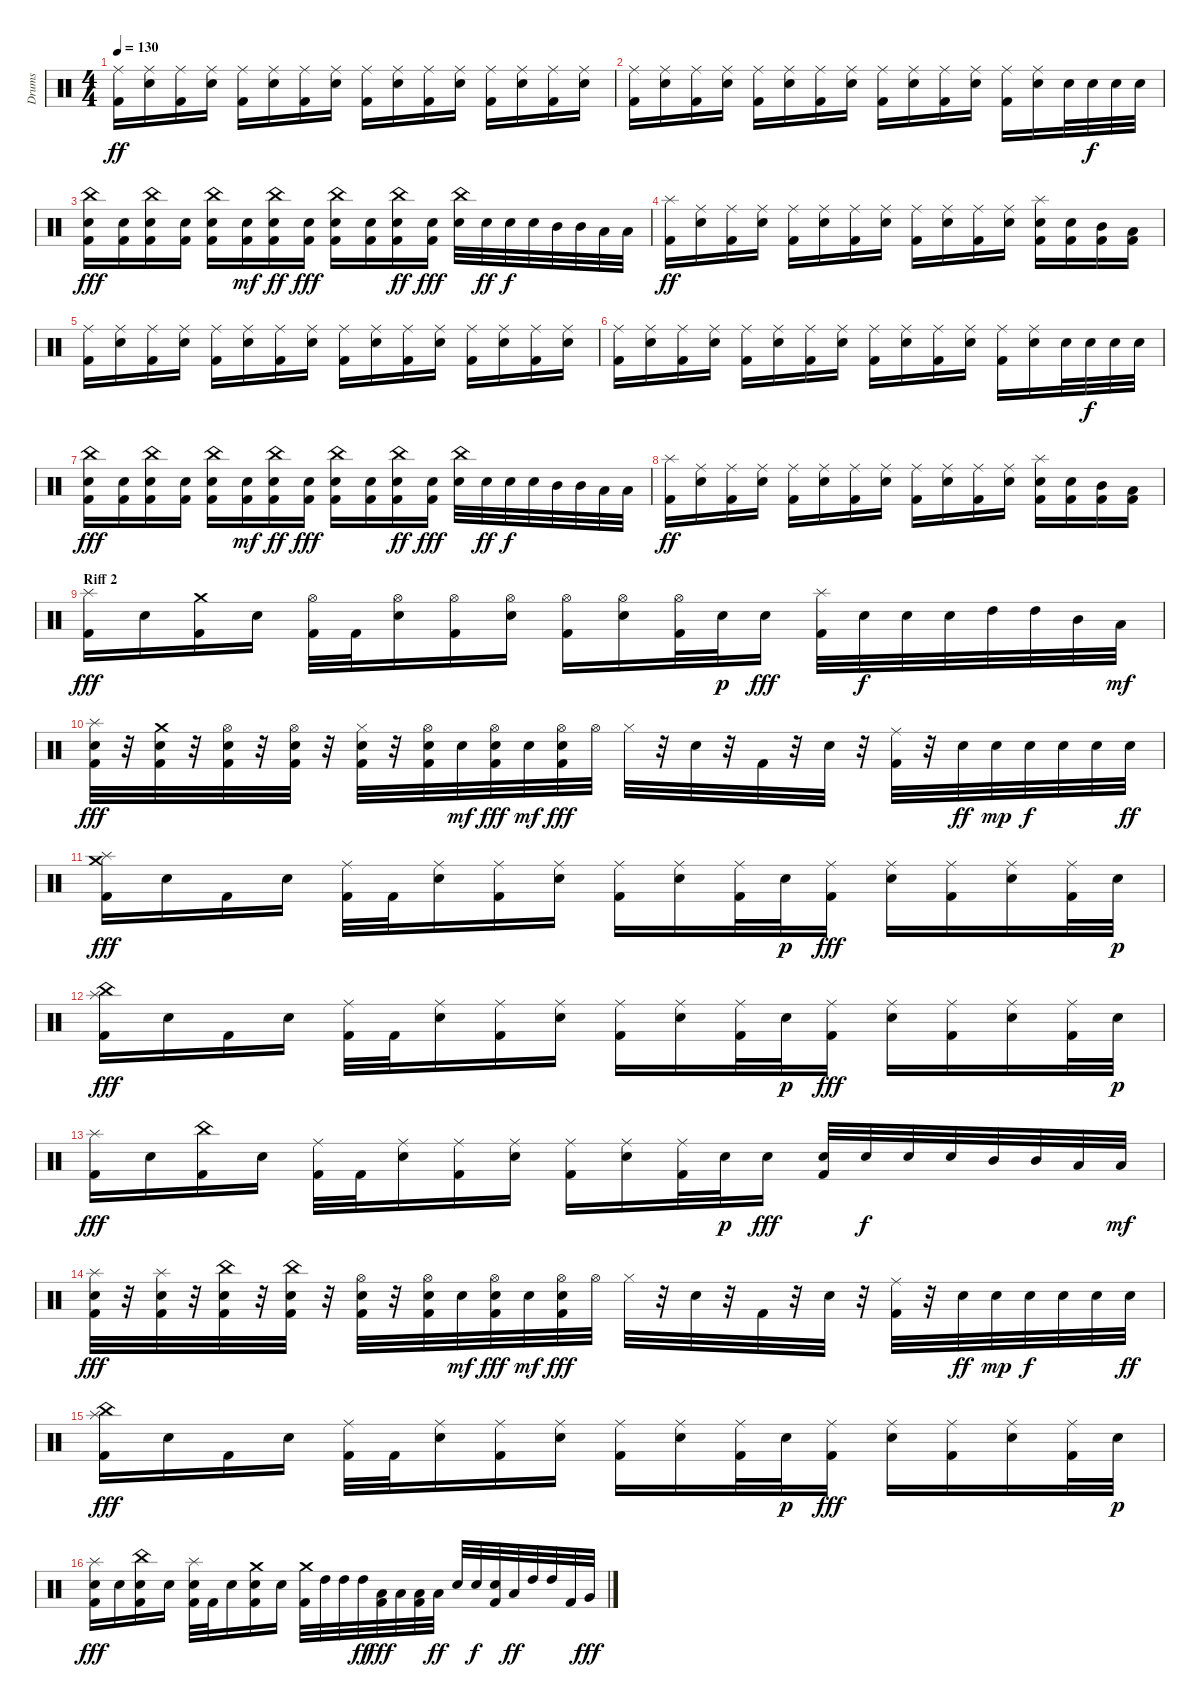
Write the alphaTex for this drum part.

\track ("Drums" "Drums") {instrument percussion}
\staff {score}
\articulation defaults
\ts (4 4)
\tempo 130
\clef neutral
\ks c
("Kick (hit) 2" "Ride (middle)").16{dy ff} ("Snare (hit) 2" "Ride (middle)").16 ("Kick (hit) 2" "Ride (middle)").16 ("Snare (hit) 2" "Ride (middle)").16 ("Kick (hit) 2" "Ride (middle)").16 ("Snare (hit) 2" "Ride (middle)").16 ("Kick (hit) 2" "Ride (middle)").16 ("Snare (hit) 2" "Ride (middle)").16 ("Kick (hit) 2" "Ride (middle)").16 ("Snare (hit) 2" "Ride (middle)").16 ("Kick (hit) 2" "Ride (middle)").16 ("Snare (hit) 2" "Ride (middle)").16 ("Kick (hit) 2" "Ride (middle)").16 ("Snare (hit) 2" "Ride (middle)").16 ("Kick (hit) 2" "Ride (middle)").16 ("Snare (hit) 2" "Ride (middle)").16 |
("Kick (hit) 2" "Ride (middle)").16 ("Snare (hit) 2" "Ride (middle)").16 ("Kick (hit) 2" "Ride (middle)").16 ("Snare (hit) 2" "Ride (middle)").16 ("Kick (hit) 2" "Ride (middle)").16 ("Snare (hit) 2" "Ride (middle)").16 ("Kick (hit) 2" "Ride (middle)").16 ("Snare (hit) 2" "Ride (middle)").16 ("Kick (hit) 2" "Ride (middle)").16 ("Snare (hit) 2" "Ride (middle)").16 ("Kick (hit) 2" "Ride (middle)").16 ("Snare (hit) 2" "Ride (middle)").16 ("Kick (hit) 2" "Ride (middle)").16 ("Snare (hit) 2" "Ride (middle)").16 "Snare (hit) 2".32 "Snare (hit) 2".32{dy f} "Snare (hit) 2".32 "Snare (hit) 2".32 |
("Kick (hit) 2" "Snare (hit) 2" "China (hit)").16{dy fff} ("Kick (hit) 2" "Snare (hit) 2").16 ("Kick (hit) 2" "Snare (hit) 2" "China (hit)").16 ("Kick (hit) 2" "Snare (hit) 2").16 ("Kick (hit) 2" "Snare (hit) 2" "China (hit)").16 ("Kick (hit) 2" "Snare (hit) 2").16{dy mf} ("Kick (hit) 2" "Snare (hit) 2" "China (hit)").16{dy ff} ("Kick (hit) 2" "Snare (hit) 2").16{dy fff} ("Kick (hit) 2" "Snare (hit) 2" "China (hit)").16 ("Kick (hit) 2" "Snare (hit) 2").16 ("Kick (hit) 2" "Snare (hit) 2" "China (hit)").16{dy ff} ("Kick (hit) 2" "Snare (hit) 2").16{dy fff} ("Snare (hit) 2" "China (hit)").32 "Snare (hit) 2".32{dy ff} "Snare (hit) 2".32{dy f} "Snare (hit) 2".32 "Mid Tom (hit)".32 "Mid Tom (hit)".32 "Low Tom (hit)".32 "Low Tom (hit)".32 |
("Kick (hit) 2" "Splash (hit)").16{dy ff} ("Snare (hit) 2" "Ride (middle)").16 ("Kick (hit) 2" "Ride (middle)").16 ("Snare (hit) 2" "Ride (middle)").16 ("Kick (hit) 2" "Ride (middle)").16 ("Snare (hit) 2" "Ride (middle)").16 ("Kick (hit) 2" "Ride (middle)").16 ("Snare (hit) 2" "Ride (middle)").16 ("Kick (hit) 2" "Ride (middle)").16 ("Snare (hit) 2" "Ride (middle)").16 ("Kick (hit) 2" "Ride (middle)").16 ("Snare (hit) 2" "Ride (middle)").16 ("Kick (hit) 2" "Snare (hit) 2" "Splash (hit)").16 ("Kick (hit) 2" "Snare (hit) 2").16 ("Kick (hit) 2" "Mid Tom (hit)").16 ("Kick (hit) 2" "Low Tom (hit)").16 |
("Kick (hit) 2" "Ride (middle)").16 ("Snare (hit) 2" "Ride (middle)").16 ("Kick (hit) 2" "Ride (middle)").16 ("Snare (hit) 2" "Ride (middle)").16 ("Kick (hit) 2" "Ride (middle)").16 ("Snare (hit) 2" "Ride (middle)").16 ("Kick (hit) 2" "Ride (middle)").16 ("Snare (hit) 2" "Ride (middle)").16 ("Kick (hit) 2" "Ride (middle)").16 ("Snare (hit) 2" "Ride (middle)").16 ("Kick (hit) 2" "Ride (middle)").16 ("Snare (hit) 2" "Ride (middle)").16 ("Kick (hit) 2" "Ride (middle)").16 ("Snare (hit) 2" "Ride (middle)").16 ("Kick (hit) 2" "Ride (middle)").16 ("Snare (hit) 2" "Ride (middle)").16 |
("Kick (hit) 2" "Ride (middle)").16 ("Snare (hit) 2" "Ride (middle)").16 ("Kick (hit) 2" "Ride (middle)").16 ("Snare (hit) 2" "Ride (middle)").16 ("Kick (hit) 2" "Ride (middle)").16 ("Snare (hit) 2" "Ride (middle)").16 ("Kick (hit) 2" "Ride (middle)").16 ("Snare (hit) 2" "Ride (middle)").16 ("Kick (hit) 2" "Ride (middle)").16 ("Snare (hit) 2" "Ride (middle)").16 ("Kick (hit) 2" "Ride (middle)").16 ("Snare (hit) 2" "Ride (middle)").16 ("Kick (hit) 2" "Ride (middle)").16 ("Snare (hit) 2" "Ride (middle)").16 "Snare (hit) 2".32 "Snare (hit) 2".32{dy f} "Snare (hit) 2".32 "Snare (hit) 2".32 |
("Kick (hit) 2" "Snare (hit) 2" "China (hit)").16{dy fff} ("Kick (hit) 2" "Snare (hit) 2").16 ("Kick (hit) 2" "Snare (hit) 2" "China (hit)").16 ("Kick (hit) 2" "Snare (hit) 2").16 ("Kick (hit) 2" "Snare (hit) 2" "China (hit)").16 ("Kick (hit) 2" "Snare (hit) 2").16{dy mf} ("Kick (hit) 2" "Snare (hit) 2" "China (hit)").16{dy ff} ("Kick (hit) 2" "Snare (hit) 2").16{dy fff} ("Kick (hit) 2" "Snare (hit) 2" "China (hit)").16 ("Kick (hit) 2" "Snare (hit) 2").16 ("Kick (hit) 2" "Snare (hit) 2" "China (hit)").16{dy ff} ("Kick (hit) 2" "Snare (hit) 2").16{dy fff} ("Snare (hit) 2" "China (hit)").32 "Snare (hit) 2".32{dy ff} "Snare (hit) 2".32{dy f} "Snare (hit) 2".32 "Mid Tom (hit)".32 "Mid Tom (hit)".32 "Low Tom (hit)".32 "Low Tom (hit)".32 |
("Kick (hit) 2" "Splash (hit)").16{dy ff} ("Snare (hit) 2" "Ride (middle)").16 ("Kick (hit) 2" "Ride (middle)").16 ("Snare (hit) 2" "Ride (middle)").16 ("Kick (hit) 2" "Ride (middle)").16 ("Snare (hit) 2" "Ride (middle)").16 ("Kick (hit) 2" "Ride (middle)").16 ("Snare (hit) 2" "Ride (middle)").16 ("Kick (hit) 2" "Ride (middle)").16 ("Snare (hit) 2" "Ride (middle)").16 ("Kick (hit) 2" "Ride (middle)").16 ("Snare (hit) 2" "Ride (middle)").16 ("Kick (hit) 2" "Snare (hit) 2" "Splash (hit)").16 ("Kick (hit) 2" "Snare (hit) 2").16 ("Kick (hit) 2" "Mid Tom (hit)").16 ("Kick (hit) 2" "Low Tom (hit)").16 |
\section ("" "Riff 2")
("Kick (hit) 2" "Splash (hit)").16{dy fff} "Snare (hit) 2".16 ("Kick (hit) 2" "Crash medium (hit)").16 "Snare (hit) 2".16 ("Kick (hit) 2" "Hi-Hat (open)").32 "Kick (hit) 2".32 ("Snare (hit) 2" "Hi-Hat (open)").16 ("Kick (hit) 2" "Hi-Hat (open)").16 ("Snare (hit) 2" "Hi-Hat (open)").16 ("Kick (hit) 2" "Hi-Hat (open)").16 ("Snare (hit) 2" "Hi-Hat (open)").16 ("Kick (hit) 2" "Hi-Hat (open)").32 "Snare (hit) 2".32{dy p} "Snare (hit) 2".16{dy fff} ("Kick (hit) 2" "Splash (hit)").32 "Snare (hit) 2".32{dy f} "Snare (hit) 2".32 "Snare (hit) 2".32 "High Tom (hit)".32 "High Tom (hit)".32 "Mid Tom (hit)".32 "Low Tom (hit)".32{dy mf} |
("Kick (hit) 2" "Snare (hit) 2" "Splash (hit)").32{dy fff} r.32 ("Kick (hit) 2" "Snare (hit) 2" "Crash medium (hit)").32 r.32 ("Kick (hit) 2" "Snare (hit) 2" "Hi-Hat (open)").32 r.32 ("Kick (hit) 2" "Snare (hit) 2" "Hi-Hat (open)").32 r.32 ("Kick (hit) 2" "Snare (hit) 2" "Hi-Hat (closed)").32 r.32 ("Kick (hit) 2" "Snare (hit) 2" "Hi-Hat (open)").32 "Snare (hit) 2".32{dy mf} ("Kick (hit) 2" "Snare (hit) 2" "Hi-Hat (open)").32{dy fff} "Snare (hit) 2".32{dy mf} ("Kick (hit) 2" "Snare (hit) 2" "Hi-Hat (open)").32{dy fff} "Hi-Hat (open)".32 "Hi-Hat (closed)".32 r.32 "Snare (hit) 2".32 r.32 "Kick (hit) 2".32 r.32 "Snare (hit) 2".32 r.32 ("Kick (hit) 2" "Ride (middle)").32 r.32 "Snare (hit) 2".32{dy ff} "Snare (hit) 2".32{dy mp} "Snare (hit) 2".32{dy f} "Snare (hit) 2".32 "Snare (hit) 2".32 "Snare (hit) 2".32{dy ff} |
("Kick (hit) 2" "Splash (hit)" "Crash medium (hit)").16{dy fff} "Snare (hit) 2".16 "Kick (hit) 2".16 "Snare (hit) 2".16 ("Kick (hit) 2" "Ride (middle)").32 "Kick (hit) 2".32 ("Snare (hit) 2" "Ride (middle)").16 ("Kick (hit) 2" "Ride (middle)").16 ("Snare (hit) 2" "Ride (middle)").16 ("Kick (hit) 2" "Ride (middle)").16 ("Snare (hit) 2" "Ride (middle)").16 ("Kick (hit) 2" "Ride (middle)").32 "Snare (hit) 2".32{dy p} ("Kick (hit) 2" "Ride (middle)").16{dy fff} ("Snare (hit) 2" "Ride (middle)").16 ("Kick (hit) 2" "Ride (middle)").16 ("Snare (hit) 2" "Ride (middle)").16 ("Kick (hit) 2" "Ride (middle)").32 "Snare (hit) 2".32{dy p} |
("Kick (hit) 2" "Splash (hit)" "China (hit)").16{dy fff} "Snare (hit) 2".16 "Kick (hit) 2".16 "Snare (hit) 2".16 ("Kick (hit) 2" "Ride (middle)").32 "Kick (hit) 2".32 ("Snare (hit) 2" "Ride (middle)").16 ("Kick (hit) 2" "Ride (middle)").16 ("Snare (hit) 2" "Ride (middle)").16 ("Kick (hit) 2" "Ride (middle)").16 ("Snare (hit) 2" "Ride (middle)").16 ("Kick (hit) 2" "Ride (middle)").32 "Snare (hit) 2".32{dy p} ("Kick (hit) 2" "Ride (middle)").16{dy fff} ("Snare (hit) 2" "Ride (middle)").16 ("Kick (hit) 2" "Ride (middle)").16 ("Snare (hit) 2" "Ride (middle)").16 ("Kick (hit) 2" "Ride (middle)").32 "Snare (hit) 2".32{dy p} |
("Kick (hit) 2" "Splash (hit)").16{dy fff} "Snare (hit) 2".16 ("Kick (hit) 2" "China (hit)").16 "Snare (hit) 2".16 ("Kick (hit) 2" "Ride (middle)").32 "Kick (hit) 2".32 ("Snare (hit) 2" "Ride (middle)").16 ("Kick (hit) 2" "Ride (middle)").16 ("Snare (hit) 2" "Ride (middle)").16 ("Kick (hit) 2" "Ride (middle)").16 ("Snare (hit) 2" "Ride (middle)").16 ("Kick (hit) 2" "Ride (middle)").32 "Snare (hit) 2".32{dy p} "Snare (hit) 2".16{dy fff} ("Kick (hit) 2" "Snare (hit) 2").32 "Snare (hit) 2".32{dy f} "Snare (hit) 2".32 "Snare (hit) 2".32 "Mid Tom (hit)".32 "Mid Tom (hit)".32 "Low Tom (hit)".32 "Low Tom (hit)".32{dy mf} |
("Kick (hit) 2" "Snare (hit) 2" "Splash (hit)").32{dy fff} r.32 ("Kick (hit) 2" "Snare (hit) 2" "Splash (hit)").32 r.32 ("Kick (hit) 2" "Snare (hit) 2" "China (hit)").32 r.32 ("Kick (hit) 2" "Snare (hit) 2" "China (hit)").32 r.32 ("Kick (hit) 2" "Snare (hit) 2" "Hi-Hat (open)").32 r.32 ("Kick (hit) 2" "Snare (hit) 2" "Hi-Hat (open)").32 "Snare (hit) 2".32{dy mf} ("Kick (hit) 2" "Snare (hit) 2" "Hi-Hat (open)").32{dy fff} "Snare (hit) 2".32{dy mf} ("Kick (hit) 2" "Snare (hit) 2" "Hi-Hat (open)").32{dy fff} "Hi-Hat (open)".32 "Hi-Hat (closed)".32 r.32 "Snare (hit) 2".32 r.32 "Kick (hit) 2".32 r.32 "Snare (hit) 2".32 r.32 ("Kick (hit) 2" "Ride (middle)").32 r.32 "Snare (hit) 2".32{dy ff} "Snare (hit) 2".32{dy mp} "Snare (hit) 2".32{dy f} "Snare (hit) 2".32 "Snare (hit) 2".32 "Snare (hit) 2".32{dy ff} |
("Kick (hit) 2" "China (hit)" "Splash (hit)").16{dy fff} "Snare (hit) 2".16 "Kick (hit) 2".16 "Snare (hit) 2".16 ("Kick (hit) 2" "Ride (middle)").32 "Kick (hit) 2".32 ("Snare (hit) 2" "Ride (middle)").16 ("Kick (hit) 2" "Ride (middle)").16 ("Snare (hit) 2" "Ride (middle)").16 ("Kick (hit) 2" "Ride (middle)").16 ("Snare (hit) 2" "Ride (middle)").16 ("Kick (hit) 2" "Ride (middle)").32 "Snare (hit) 2".32{dy p} ("Kick (hit) 2" "Ride (middle)").16{dy fff} ("Snare (hit) 2" "Ride (middle)").16 ("Kick (hit) 2" "Ride (middle)").16 ("Snare (hit) 2" "Ride (middle)").16 ("Kick (hit) 2" "Ride (middle)").32 "Snare (hit) 2".32{dy p} |
("Kick (hit) 2" "Snare (hit) 2" "Splash (hit)").16{dy fff} "Snare (hit) 2".16 ("Kick (hit) 2" "Snare (hit) 2" "China (hit)").16 "Snare (hit) 2".16 ("Kick (hit) 2" "Snare (hit) 2" "Splash (hit)").32 "Kick (hit) 2".32 "Snare (hit) 2".16 ("Kick (hit) 2" "Snare (hit) 2" "Crash medium (hit)").16 "Snare (hit) 2".16 ("Kick (hit) 2" "Crash medium (hit)").32 "High Tom (hit)".32 "High Tom (hit)".32 "High Tom (hit)".32{dy ff} ("Kick (hit) 2" "Low Tom (hit)").32{dy fff} "Low Tom (hit)".32 ("Kick (hit) 2" "Low Tom (hit)").32 "Low Tom (hit)".32{dy ff} "Snare (hit) 2".32 "Snare (hit) 2".32{dy f} ("Kick (hit) 2" "Snare (hit) 2").32 "Low Tom (hit)".32{dy ff} "High Tom (hit)".32 "High Tom (hit)".32 "Kick (hit) 2".32 "Very Low Tom (hit)".32{dy fff}
